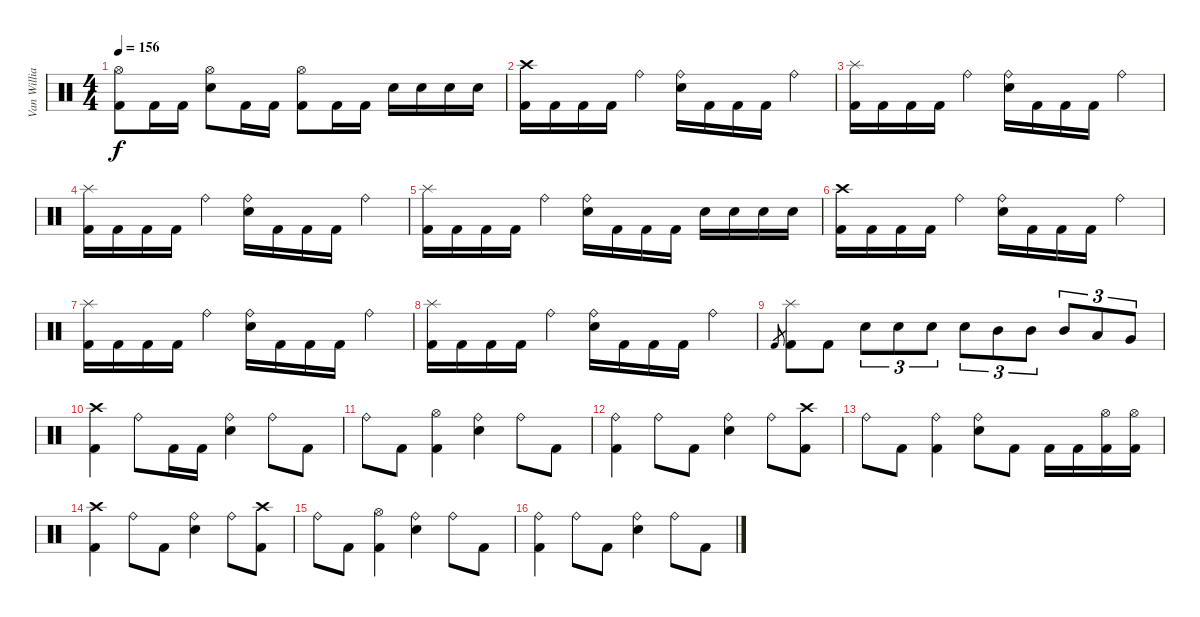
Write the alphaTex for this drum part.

\track ("Van Williams" "Van Willia") {instrument percussion}
\staff {score}
\articulation defaults
\ts (4 4)
\tempo 156
\clef neutral
\ks c
("Hi-Hat (open)" "Kick (hit) 2").8{dy f} "Kick (hit) 2".16 "Kick (hit) 2".16 ("Hi-Hat (open)" "Electric Snare (hit)").8 "Kick (hit) 2".16 "Kick (hit) 2".16 ("Hi-Hat (open)" "Kick (hit) 2").8 "Kick (hit) 2".16 "Kick (hit) 2".16 "Electric Snare (hit)".16 "Electric Snare (hit)".16 "Electric Snare (hit)".16 "Electric Snare (hit)".16 |
\section ("" "")
("Crash high (hit)" "Kick (hit) 2").16 "Kick (hit) 2".16 "Kick (hit) 2".16 "Kick (hit) 2".16 "Ride (bell)".4 ("Ride (bell)" "Electric Snare (hit)").16 "Kick (hit) 2".16 "Kick (hit) 2".16 "Kick (hit) 2".16 "Ride (bell)".4 |
("Splash (hit)" "Kick (hit) 2").16 "Kick (hit) 2".16 "Kick (hit) 2".16 "Kick (hit) 2".16 "Ride (bell)".4 ("Ride (bell)" "Electric Snare (hit)").16 "Kick (hit) 2".16 "Kick (hit) 2".16 "Kick (hit) 2".16 "Ride (bell)".4 |
("Splash (hit)" "Kick (hit) 2").16 "Kick (hit) 2".16 "Kick (hit) 2".16 "Kick (hit) 2".16 "Ride (bell)".4 ("Ride (bell)" "Electric Snare (hit)").16 "Kick (hit) 2".16 "Kick (hit) 2".16 "Kick (hit) 2".16 "Ride (bell)".4 |
("Splash (hit)" "Kick (hit) 2").16 "Kick (hit) 2".16 "Kick (hit) 2".16 "Kick (hit) 2".16 "Ride (bell)".4 ("Ride (bell)" "Electric Snare (hit)").16 "Kick (hit) 2".16 "Kick (hit) 2".16 "Kick (hit) 2".16 "Electric Snare (hit)".16 "Electric Snare (hit)".16 "Electric Snare (hit)".16 "Electric Snare (hit)".16 |
("Crash high (hit)" "Kick (hit) 2").16 "Kick (hit) 2".16 "Kick (hit) 2".16 "Kick (hit) 2".16 "Ride (bell)".4 ("Ride (bell)" "Electric Snare (hit)").16 "Kick (hit) 2".16 "Kick (hit) 2".16 "Kick (hit) 2".16 "Ride (bell)".4 |
("Splash (hit)" "Kick (hit) 2").16 "Kick (hit) 2".16 "Kick (hit) 2".16 "Kick (hit) 2".16 "Ride (bell)".4 ("Ride (bell)" "Electric Snare (hit)").16 "Kick (hit) 2".16 "Kick (hit) 2".16 "Kick (hit) 2".16 "Ride (bell)".4 |
("Splash (hit)" "Kick (hit) 2").16 "Kick (hit) 2".16 "Kick (hit) 2".16 "Kick (hit) 2".16 "Ride (bell)".4 ("Ride (bell)" "Electric Snare (hit)").16 "Kick (hit) 2".16 "Kick (hit) 2".16 "Kick (hit) 2".16 "Ride (bell)".4 |
"Kick (hit) 2".8{gr} ("Splash (hit)" "Kick (hit) 2").8 "Kick (hit) 2".8 "Electric Snare (hit)".8{tu (3 2)} "Electric Snare (hit)".8{tu (3 2)} "Electric Snare (hit)".8{tu (3 2)} "Electric Snare (hit)".8{tu (3 2)} "Mid Tom (hit)".8{tu (3 2)} "Mid Tom (hit)".8{tu (3 2)} "Mid Tom (hit)".8{tu (3 2)} "Low Tom (hit)".8{tu (3 2)} "Very Low Tom (hit)".8{tu (3 2)} |
\section ("" "")
("Crash high (hit)" "Kick (hit) 2").4 "Ride (bell)".8 "Kick (hit) 2".16 "Kick (hit) 2".16 ("Ride (bell)" "Electric Snare (hit)").4 "Ride (bell)".8 "Kick (hit) 2".8 |
"Ride (bell)".8 "Kick (hit) 2".8 ("Hi-Hat (open)" "Kick (hit) 2").4 ("Ride (bell)" "Electric Snare (hit)").4 "Ride (bell)".8 "Kick (hit) 2".8 |
("Ride (bell)" "Kick (hit) 2").4 "Ride (bell)".8 "Kick (hit) 2".8 ("Ride (bell)" "Electric Snare (hit)").4 "Ride (bell)".8 ("Crash high (hit)" "Kick (hit) 2").8 |
"Ride (bell)".8 "Kick (hit) 2".8 ("Ride (bell)" "Kick (hit) 2").4 ("Ride (bell)" "Electric Snare (hit)").8 "Kick (hit) 2".8 "Kick (hit) 2".16 "Kick (hit) 2".16 ("Hi-Hat (open)" "Kick (hit) 2").16 ("Hi-Hat (open)" "Kick (hit) 2").16 |
("Crash high (hit)" "Kick (hit) 2").4 "Ride (bell)".8 "Kick (hit) 2".8 ("Ride (bell)" "Electric Snare (hit)").4 "Ride (bell)".8 ("Crash high (hit)" "Kick (hit) 2").8 |
"Ride (bell)".8 "Kick (hit) 2".8 ("Hi-Hat (open)" "Kick (hit) 2").4 ("Ride (bell)" "Electric Snare (hit)").4 "Ride (bell)".8 "Kick (hit) 2".8 |
("Ride (bell)" "Kick (hit) 2").4 "Ride (bell)".8 "Kick (hit) 2".8 ("Ride (bell)" "Electric Snare (hit)").4 "Ride (bell)".8 "Kick (hit) 2".8
